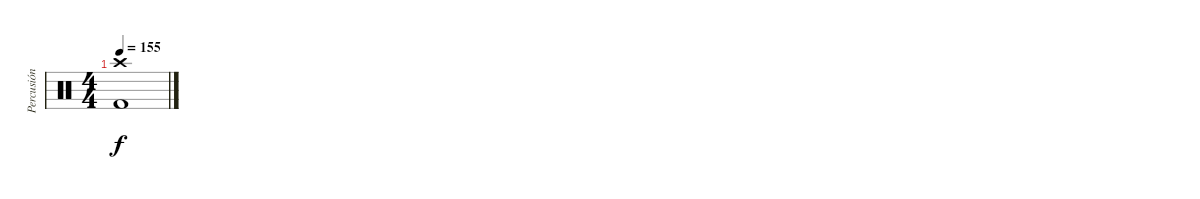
\track ("Percusión" "Percusión") {instrument percussion}
\staff {score}
\articulation defaults
\ts (4 4)
\tempo 155
\clef neutral
\ks c
("Crash high (hit)" "Kick (hit) 2").1{dy f}
